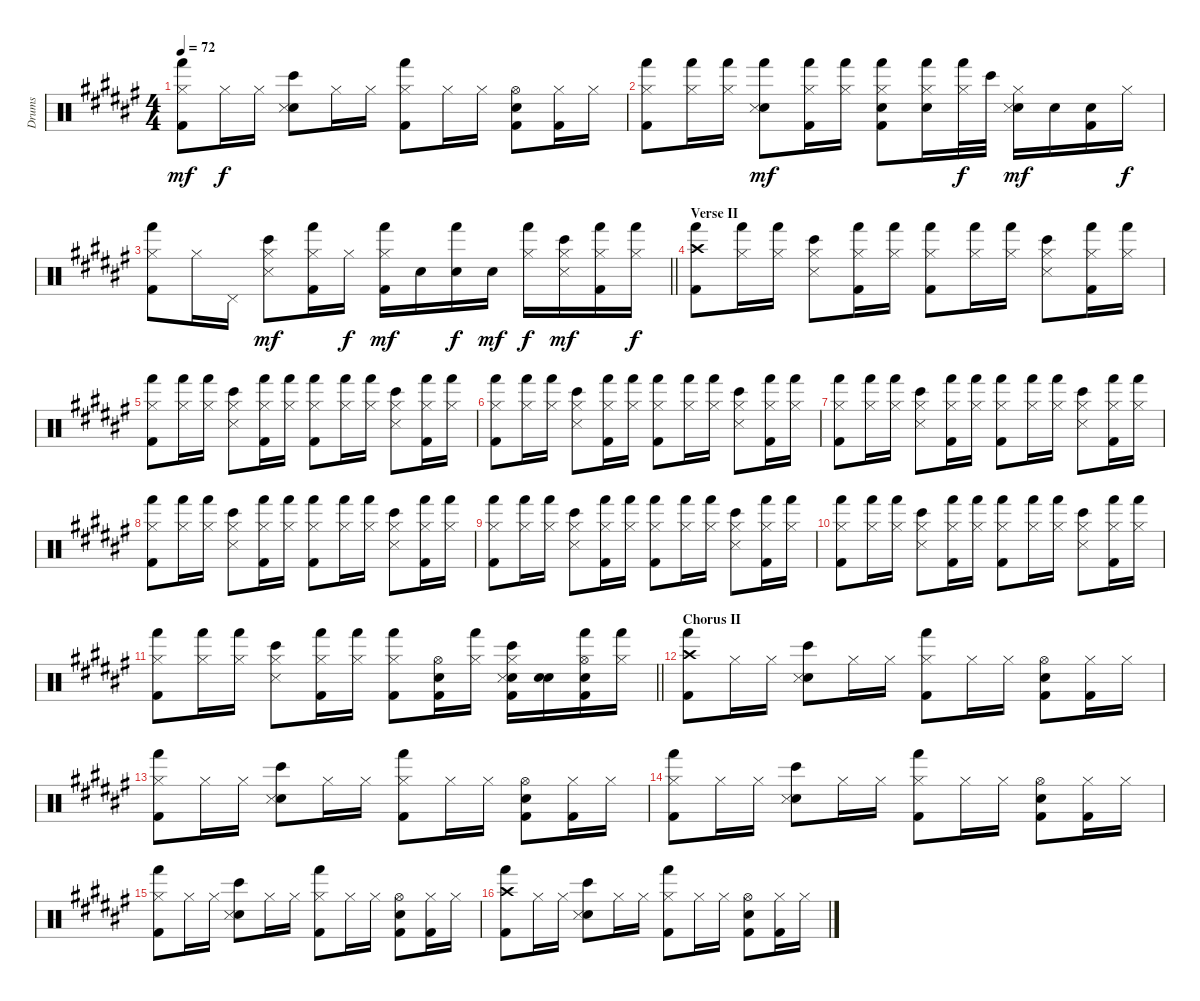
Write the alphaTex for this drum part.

\track ("Drums" "Drums") {instrument percussion}
\staff {score}
\articulation defaults
\ts (4 4)
\tempo 72
\clef neutral
\ks f#
("Hi-Hat (closed)" "Hand (hit)" "Kick (hit) 2").8{dy mf} "Hi-Hat (closed)".16{dy f} "Hi-Hat (closed)".16 ("Bongo High (hit)" "Snare (hit) 2" "Snare (side stick) 3").8 "Hi-Hat (closed)".16 "Hi-Hat (closed)".16 ("Hi-Hat (closed)" "Hand (hit)" "Kick (hit) 2").8 "Hi-Hat (closed)".16 "Hi-Hat (closed)".16 ("Hi-Hat (open)" "Snare (hit) 2" "Kick (hit) 2").8 ("Hi-Hat (closed)" "Kick (hit) 2").16 "Hi-Hat (closed)".16 |
("Hi-Hat (closed)" "Hand (hit)" "Kick (hit) 2").8 ("Hand (hit)" "Hi-Hat (closed)").16 ("Hand (hit)" "Hi-Hat (closed)").16 ("Hand (hit)" "Snare (hit) 2" "Snare (side stick) 3").8{dy mf} ("Hi-Hat (closed)" "Hand (hit)" "Kick (hit) 2").16 ("Hi-Hat (closed)" "Hand (hit)").16 ("Hand (hit)" "Hi-Hat (closed)" "Snare (hit) 2" "Kick (hit) 2").8 ("Hand (hit)" "Hi-Hat (closed)" "Snare (hit) 2").16 ("Hand (hit)" "Hi-Hat (closed)").32{dy f} "Bongo High (hit)".32 ("Hi-Hat (closed)" "Snare (hit) 2" "Snare (side stick) 3").16{dy mf} "Snare (hit) 2".16 ("Snare (hit) 2" "Kick (hit) 2").16 "Hi-Hat (closed)".16{dy f} |
\barLineRight lightlight
("Hi-Hat (closed)" "Hand (hit)" "Kick (hit) 2").8 "Hi-Hat (closed)".16 "Pedal Hi-Hat (hit)".16 ("Bongo High (hit)" "Hi-Hat (closed)" "Snare (side stick) 3").8{dy mf} ("Hand (hit)" "Hi-Hat (closed)" "Kick (hit) 2").16 "Hi-Hat (closed)".16{dy f} ("Hand (hit)" "Hi-Hat (closed)" "Kick (hit) 2").16{dy mf} "Snare (hit) 2".16 ("Hand (hit)" "Snare (hit) 2").16{dy f} "Snare (hit) 2".16{dy mf} ("Hand (hit)" "Hi-Hat (closed)").16{dy f} ("Bongo High (hit)" "Hi-Hat (closed)" "Snare (side stick) 3").16{dy mf} ("Hand (hit)" "Hi-Hat (closed)" "Kick (hit) 2").16 ("Hand (hit)" "Hi-Hat (closed)").16{dy f} |
\section ("" "Verse II")
("Crash high (hit)" "Hand (hit)" "Kick (hit) 2").8 ("Hi-Hat (closed)" "Hand (hit)").16 ("Hi-Hat (closed)" "Hand (hit)").16 ("Hi-Hat (closed)" "Bongo High (hit)" "Snare (side stick) 3").8 ("Hi-Hat (closed)" "Hand (hit)" "Kick (hit) 2").16 ("Hi-Hat (closed)" "Hand (hit)").16 ("Hi-Hat (closed)" "Hand (hit)" "Kick (hit) 2").8 ("Hi-Hat (closed)" "Hand (hit)").16 ("Hi-Hat (closed)" "Hand (hit)").16 ("Hi-Hat (closed)" "Bongo High (hit)" "Snare (side stick) 3").8 ("Hi-Hat (closed)" "Hand (hit)" "Kick (hit) 2").16 ("Hi-Hat (closed)" "Hand (hit)").16 |
("Hi-Hat (closed)" "Hand (hit)" "Kick (hit) 2").8 ("Hi-Hat (closed)" "Hand (hit)").16 ("Hi-Hat (closed)" "Hand (hit)").16 ("Hi-Hat (closed)" "Bongo High (hit)" "Snare (side stick) 3").8 ("Hi-Hat (closed)" "Hand (hit)" "Kick (hit) 2").16 ("Hi-Hat (closed)" "Hand (hit)").16 ("Hi-Hat (closed)" "Hand (hit)" "Kick (hit) 2").8 ("Hi-Hat (closed)" "Hand (hit)").16 ("Hi-Hat (closed)" "Hand (hit)").16 ("Hi-Hat (closed)" "Bongo High (hit)" "Snare (side stick) 3").8 ("Hi-Hat (closed)" "Hand (hit)" "Kick (hit) 2").16 ("Hi-Hat (closed)" "Hand (hit)").16 |
("Hi-Hat (closed)" "Hand (hit)" "Kick (hit) 2").8 ("Hi-Hat (closed)" "Hand (hit)").16 ("Hi-Hat (closed)" "Hand (hit)").16 ("Hi-Hat (closed)" "Bongo High (hit)" "Snare (side stick) 3").8 ("Hi-Hat (closed)" "Hand (hit)" "Kick (hit) 2").16 ("Hi-Hat (closed)" "Hand (hit)").16 ("Hi-Hat (closed)" "Hand (hit)" "Kick (hit) 2").8 ("Hi-Hat (closed)" "Hand (hit)").16 ("Hi-Hat (closed)" "Hand (hit)").16 ("Hi-Hat (closed)" "Bongo High (hit)" "Snare (side stick) 3").8 ("Hi-Hat (closed)" "Hand (hit)" "Kick (hit) 2").16 ("Hi-Hat (closed)" "Hand (hit)").16 |
("Hi-Hat (closed)" "Hand (hit)" "Kick (hit) 2").8 ("Hi-Hat (closed)" "Hand (hit)").16 ("Hi-Hat (closed)" "Hand (hit)").16 ("Hi-Hat (closed)" "Bongo High (hit)" "Snare (side stick) 3").8 ("Hi-Hat (closed)" "Hand (hit)" "Kick (hit) 2").16 ("Hi-Hat (closed)" "Hand (hit)").16 ("Hi-Hat (closed)" "Hand (hit)" "Kick (hit) 2").8 ("Hi-Hat (closed)" "Hand (hit)").16 ("Hi-Hat (closed)" "Hand (hit)").16 ("Hi-Hat (closed)" "Bongo High (hit)" "Snare (side stick) 3").8 ("Hi-Hat (closed)" "Hand (hit)" "Kick (hit) 2").16 ("Hi-Hat (closed)" "Hand (hit)").16 |
("Hi-Hat (closed)" "Hand (hit)" "Kick (hit) 2").8 ("Hi-Hat (closed)" "Hand (hit)").16 ("Hi-Hat (closed)" "Hand (hit)").16 ("Hi-Hat (closed)" "Bongo High (hit)" "Snare (side stick) 3").8 ("Hi-Hat (closed)" "Hand (hit)" "Kick (hit) 2").16 ("Hi-Hat (closed)" "Hand (hit)").16 ("Hi-Hat (closed)" "Hand (hit)" "Kick (hit) 2").8 ("Hi-Hat (closed)" "Hand (hit)").16 ("Hi-Hat (closed)" "Hand (hit)").16 ("Hi-Hat (closed)" "Bongo High (hit)" "Snare (side stick) 3").8 ("Hi-Hat (closed)" "Hand (hit)" "Kick (hit) 2").16 ("Hi-Hat (closed)" "Hand (hit)").16 |
("Hi-Hat (closed)" "Hand (hit)" "Kick (hit) 2").8 ("Hi-Hat (closed)" "Hand (hit)").16 ("Hi-Hat (closed)" "Hand (hit)").16 ("Hi-Hat (closed)" "Bongo High (hit)" "Snare (side stick) 3").8 ("Hi-Hat (closed)" "Hand (hit)" "Kick (hit) 2").16 ("Hi-Hat (closed)" "Hand (hit)").16 ("Hi-Hat (closed)" "Hand (hit)" "Kick (hit) 2").8 ("Hi-Hat (closed)" "Hand (hit)").16 ("Hi-Hat (closed)" "Hand (hit)").16 ("Hi-Hat (closed)" "Bongo High (hit)" "Snare (side stick) 3").8 ("Hi-Hat (closed)" "Hand (hit)" "Kick (hit) 2").16 ("Hi-Hat (closed)" "Hand (hit)").16 |
("Hi-Hat (closed)" "Hand (hit)" "Kick (hit) 2").8 ("Hi-Hat (closed)" "Hand (hit)").16 ("Hi-Hat (closed)" "Hand (hit)").16 ("Hi-Hat (closed)" "Bongo High (hit)" "Snare (side stick) 3").8 ("Hi-Hat (closed)" "Hand (hit)" "Kick (hit) 2").16 ("Hi-Hat (closed)" "Hand (hit)").16 ("Hi-Hat (closed)" "Hand (hit)" "Kick (hit) 2").8 ("Hi-Hat (closed)" "Hand (hit)").16 ("Hi-Hat (closed)" "Hand (hit)").16 ("Hi-Hat (closed)" "Bongo High (hit)" "Snare (side stick) 3").8 ("Hi-Hat (closed)" "Hand (hit)" "Kick (hit) 2").16 ("Hi-Hat (closed)" "Hand (hit)").16 |
\barLineRight lightlight
("Hi-Hat (closed)" "Hand (hit)" "Kick (hit) 2").8 ("Hi-Hat (closed)" "Hand (hit)").16 ("Hi-Hat (closed)" "Hand (hit)").16 ("Hi-Hat (closed)" "Bongo High (hit)" "Snare (side stick) 3").8 ("Hi-Hat (closed)" "Hand (hit)" "Kick (hit) 2").16 ("Hi-Hat (closed)" "Hand (hit)").16 ("Hi-Hat (closed)" "Hand (hit)" "Kick (hit) 2").8 ("Hi-Hat (open)" "Snare (hit) 2" "Kick (hit) 2").16 ("Hand (hit)" "Hi-Hat (closed)").16 ("Hi-Hat (closed)" "Snare (hit) 2" "Bongo High (hit)" "Kick (hit) 2" "Snare (side stick) 3").16 ("Electric Snare (hit)" "Snare (hit) 2").16 ("Hi-Hat (open)" "Snare (hit) 2" "Kick (hit) 2" "Hand (hit)").16 ("Hand (hit)" "Hi-Hat (closed)").16 |
\section ("" "Chorus II")
("Crash high (hit)" "Hand (hit)" "Kick (hit) 2").8 "Hi-Hat (closed)".16 "Hi-Hat (closed)".16 ("Bongo High (hit)" "Snare (hit) 2" "Snare (side stick) 3").8 "Hi-Hat (closed)".16 "Hi-Hat (closed)".16 ("Hi-Hat (closed)" "Hand (hit)" "Kick (hit) 2").8 "Hi-Hat (closed)".16 "Hi-Hat (closed)".16 ("Hi-Hat (open)" "Snare (hit) 2" "Kick (hit) 2").8 ("Hi-Hat (closed)" "Kick (hit) 2").16 "Hi-Hat (closed)".16 |
("Hi-Hat (closed)" "Hand (hit)" "Kick (hit) 2").8 "Hi-Hat (closed)".16 "Hi-Hat (closed)".16 ("Bongo High (hit)" "Snare (hit) 2" "Snare (side stick) 3").8 "Hi-Hat (closed)".16 "Hi-Hat (closed)".16 ("Hi-Hat (closed)" "Hand (hit)" "Kick (hit) 2").8 "Hi-Hat (closed)".16 "Hi-Hat (closed)".16 ("Hi-Hat (open)" "Snare (hit) 2" "Kick (hit) 2").8 ("Hi-Hat (closed)" "Kick (hit) 2").16 "Hi-Hat (closed)".16 |
("Hi-Hat (closed)" "Hand (hit)" "Kick (hit) 2").8 "Hi-Hat (closed)".16 "Hi-Hat (closed)".16 ("Bongo High (hit)" "Snare (hit) 2" "Snare (side stick) 3").8 "Hi-Hat (closed)".16 "Hi-Hat (closed)".16 ("Hi-Hat (closed)" "Hand (hit)" "Kick (hit) 2").8 "Hi-Hat (closed)".16 "Hi-Hat (closed)".16 ("Hi-Hat (open)" "Snare (hit) 2" "Kick (hit) 2").8 ("Hi-Hat (closed)" "Kick (hit) 2").16 "Hi-Hat (closed)".16 |
("Hi-Hat (closed)" "Hand (hit)" "Kick (hit) 2").8 "Hi-Hat (closed)".16 "Hi-Hat (closed)".16 ("Bongo High (hit)" "Snare (hit) 2" "Snare (side stick) 3").8 "Hi-Hat (closed)".16 "Hi-Hat (closed)".16 ("Hi-Hat (closed)" "Hand (hit)" "Kick (hit) 2").8 "Hi-Hat (closed)".16 "Hi-Hat (closed)".16 ("Hi-Hat (open)" "Snare (hit) 2" "Kick (hit) 2").8 ("Hi-Hat (closed)" "Kick (hit) 2").16 "Hi-Hat (closed)".16 |
("Crash high (hit)" "Hand (hit)" "Kick (hit) 2").8 "Hi-Hat (closed)".16 "Hi-Hat (closed)".16 ("Bongo High (hit)" "Snare (hit) 2" "Snare (side stick) 3").8 "Hi-Hat (closed)".16 "Hi-Hat (closed)".16 ("Hi-Hat (closed)" "Hand (hit)" "Kick (hit) 2").8 "Hi-Hat (closed)".16 "Hi-Hat (closed)".16 ("Hi-Hat (open)" "Snare (hit) 2" "Kick (hit) 2").8 ("Hi-Hat (closed)" "Kick (hit) 2").16 "Hi-Hat (closed)".16
